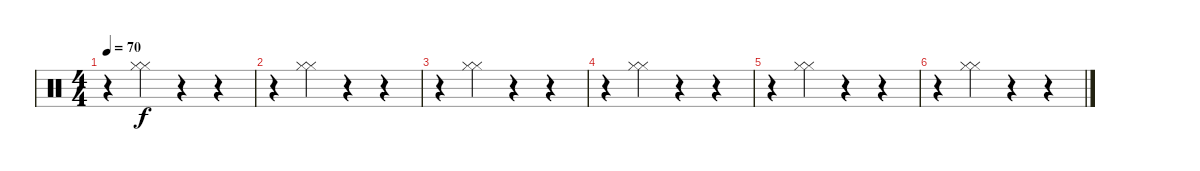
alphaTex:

\track "" {instrument percussion}
\staff {score}
\articulation defaults
\ts (4 4)
\tempo 70
\clef neutral
\ks c
r.4{dy f} ("Hi-Hat (closed)" "Hi-Hat (closed)").4 r.4 r.4 |
r.4 ("Hi-Hat (closed)" "Hi-Hat (closed)").4 r.4 r.4 |
r.4 ("Hi-Hat (closed)" "Hi-Hat (closed)").4 r.4 r.4 |
r.4 ("Hi-Hat (closed)" "Hi-Hat (closed)").4 r.4 r.4 |
r.4 ("Hi-Hat (closed)" "Hi-Hat (closed)").4 r.4 r.4 |
r.4 ("Hi-Hat (closed)" "Hi-Hat (closed)").4 r.4 r.4
